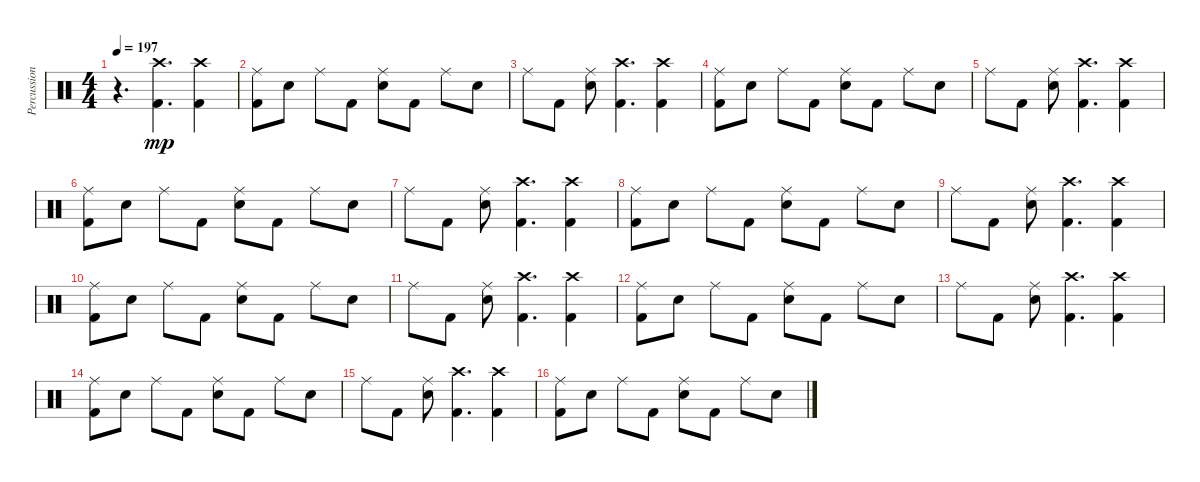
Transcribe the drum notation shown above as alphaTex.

\track ("Percussion" "Percussion") {instrument percussion}
\staff {score}
\articulation defaults
\ts (4 4)
\tempo 197
\clef neutral
\ks c
r.4{d dy mp} ("Crash high (hit)" "Kick (hit) 2").4{d} ("Crash high (hit)" "Kick (hit) 2").4 |
("Ride (middle)" "Kick (hit) 2").8 "Snare (hit) 2".8 "Ride (middle)".8 "Kick (hit) 2".8 ("Ride (middle)" "Snare (hit) 2").8 "Kick (hit) 2".8 "Ride (middle)".8 "Snare (hit) 2".8 |
"Ride (middle)".8 "Kick (hit) 2".8 ("Ride (middle)" "Snare (hit) 2").8 ("Crash high (hit)" "Kick (hit) 2").4{d} ("Crash high (hit)" "Kick (hit) 2").4 |
("Ride (middle)" "Kick (hit) 2").8 "Snare (hit) 2".8 "Ride (middle)".8 "Kick (hit) 2".8 ("Ride (middle)" "Snare (hit) 2").8 "Kick (hit) 2".8 "Ride (middle)".8 "Snare (hit) 2".8 |
"Ride (middle)".8 "Kick (hit) 2".8 ("Ride (middle)" "Snare (hit) 2").8 ("Crash high (hit)" "Kick (hit) 2").4{d} ("Crash high (hit)" "Kick (hit) 2").4 |
("Ride (middle)" "Kick (hit) 2").8 "Snare (hit) 2".8 "Ride (middle)".8 "Kick (hit) 2".8 ("Ride (middle)" "Snare (hit) 2").8 "Kick (hit) 2".8 "Ride (middle)".8 "Snare (hit) 2".8 |
"Ride (middle)".8 "Kick (hit) 2".8 ("Ride (middle)" "Snare (hit) 2").8 ("Crash high (hit)" "Kick (hit) 2").4{d} ("Crash high (hit)" "Kick (hit) 2").4 |
("Ride (middle)" "Kick (hit) 2").8 "Snare (hit) 2".8 "Ride (middle)".8 "Kick (hit) 2".8 ("Ride (middle)" "Snare (hit) 2").8 "Kick (hit) 2".8 "Ride (middle)".8 "Snare (hit) 2".8 |
"Ride (middle)".8 "Kick (hit) 2".8 ("Ride (middle)" "Snare (hit) 2").8 ("Crash high (hit)" "Kick (hit) 2").4{d} ("Crash high (hit)" "Kick (hit) 2").4 |
("Ride (middle)" "Kick (hit) 2").8 "Snare (hit) 2".8 "Ride (middle)".8 "Kick (hit) 2".8 ("Ride (middle)" "Snare (hit) 2").8 "Kick (hit) 2".8 "Ride (middle)".8 "Snare (hit) 2".8 |
"Ride (middle)".8 "Kick (hit) 2".8 ("Ride (middle)" "Snare (hit) 2").8 ("Crash high (hit)" "Kick (hit) 2").4{d} ("Crash high (hit)" "Kick (hit) 2").4 |
("Ride (middle)" "Kick (hit) 2").8 "Snare (hit) 2".8 "Ride (middle)".8 "Kick (hit) 2".8 ("Ride (middle)" "Snare (hit) 2").8 "Kick (hit) 2".8 "Ride (middle)".8 "Snare (hit) 2".8 |
"Ride (middle)".8 "Kick (hit) 2".8 ("Ride (middle)" "Snare (hit) 2").8 ("Crash high (hit)" "Kick (hit) 2").4{d} ("Crash high (hit)" "Kick (hit) 2").4 |
("Ride (middle)" "Kick (hit) 2").8 "Snare (hit) 2".8 "Ride (middle)".8 "Kick (hit) 2".8 ("Ride (middle)" "Snare (hit) 2").8 "Kick (hit) 2".8 "Ride (middle)".8 "Snare (hit) 2".8 |
"Ride (middle)".8 "Kick (hit) 2".8 ("Ride (middle)" "Snare (hit) 2").8 ("Crash high (hit)" "Kick (hit) 2").4{d} ("Crash high (hit)" "Kick (hit) 2").4 |
("Ride (middle)" "Kick (hit) 2").8 "Snare (hit) 2".8 "Ride (middle)".8 "Kick (hit) 2".8 ("Ride (middle)" "Snare (hit) 2").8 "Kick (hit) 2".8 "Ride (middle)".8 "Snare (hit) 2".8
